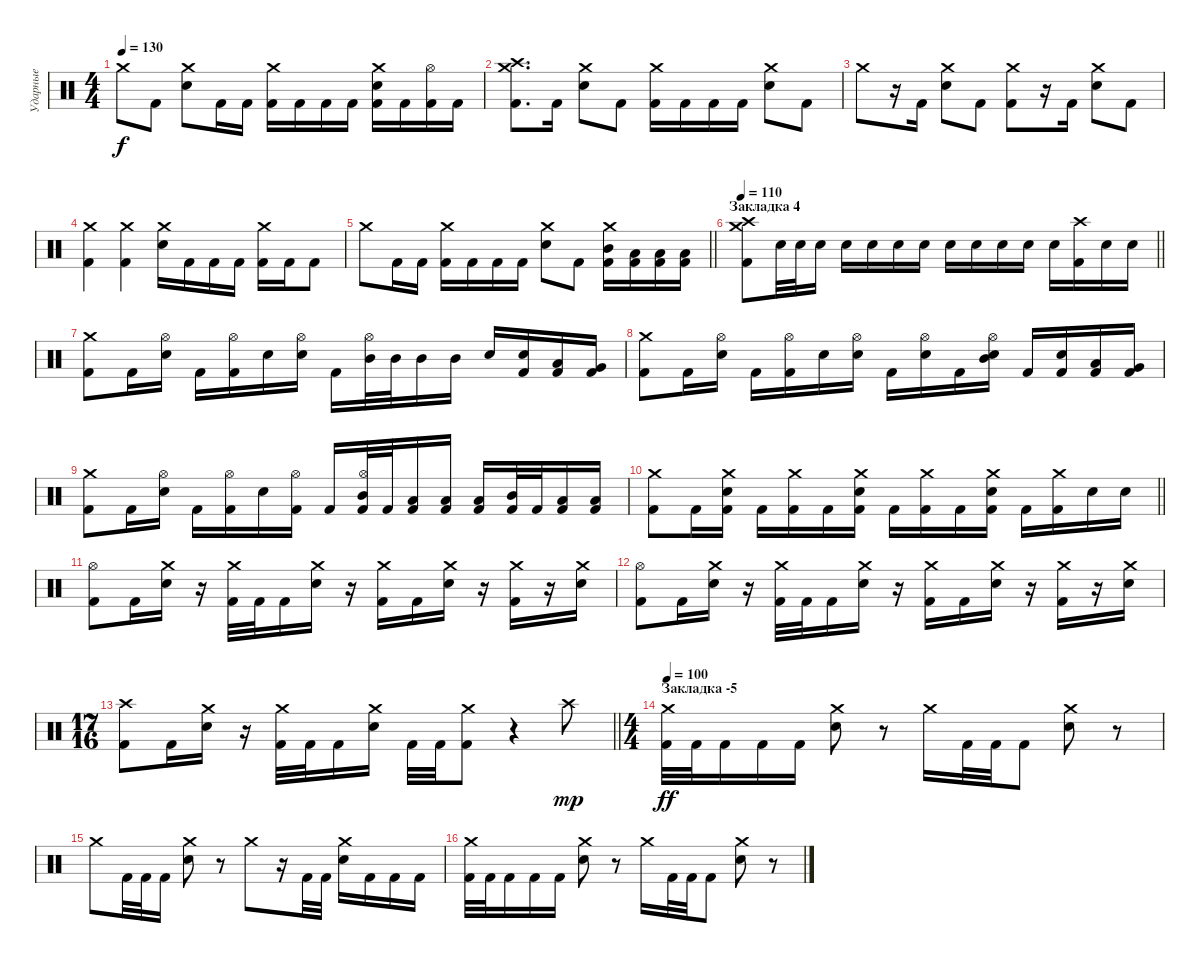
\track ("Ударные" "Ударные") {instrument percussion}
\staff {score}
\articulation defaults
\ts (4 4)
\tempo 130
\clef neutral
\ks c "Crash medium (hit)".8{dy f} "Kick (hit) 2".8
("Crash medium (hit)" "Electric Snare (hit)").8 "Kick (hit) 2".16 "Kick (hit) 2".16 ("Crash medium (hit)" "Kick (hit) 2").16 "Kick (hit) 2".16 "Kick (hit) 2".16 "Kick (hit) 2".16 ("Crash medium (hit)" "Electric Snare (hit)" "Kick (hit) 2").16 "Kick (hit) 2".16 ("Hi-Hat (open)" "Kick (hit) 2").16 "Kick (hit) 2".16 |
("Crash medium (hit)" "Crash high (hit)" "Kick (hit) 2").8{d} "Kick (hit) 2".16 ("Crash medium (hit)" "Electric Snare (hit)").8 "Kick (hit) 2".8 ("Crash medium (hit)" "Kick (hit) 2").16 "Kick (hit) 2".16 "Kick (hit) 2".16 "Kick (hit) 2".16 ("Crash medium (hit)" "Electric Snare (hit)").8 "Kick (hit) 2".8 |
"Crash medium (hit)".8 r.16 "Kick (hit) 2".16 ("Crash medium (hit)" "Electric Snare (hit)").8 "Kick (hit) 2".8 ("Crash medium (hit)" "Kick (hit) 2").8 r.16 "Kick (hit) 2".16 ("Crash medium (hit)" "Electric Snare (hit)").8 "Kick (hit) 2".8 |
("Crash medium (hit)" "Kick (hit) 2").4 ("Crash medium (hit)" "Kick (hit) 2").4 ("Crash medium (hit)" "Electric Snare (hit)").16 "Kick (hit) 2".16 "Kick (hit) 2".16 "Kick (hit) 2".16 ("Crash medium (hit)" "Kick (hit) 2").16 "Kick (hit) 2".16 "Kick (hit) 2".8 |
\barLineRight lightlight "Crash medium (hit)".8 "Kick (hit) 2".16 "Kick (hit) 2".16
("Crash medium (hit)" "Kick (hit) 2").16 "Kick (hit) 2".16 "Kick (hit) 2".16 "Kick (hit) 2".16 ("Crash medium (hit)" "Electric Snare (hit)").8 "Kick (hit) 2".8 ("Crash medium (hit)" "Mid Tom (hit)" "Kick (hit) 2").16 ("Low Floor Tom (hit)" "Kick (hit) 2").16 ("Low Tom (hit)" "Kick (hit) 2").16 ("Low Floor Tom (hit)" "Kick (hit) 2").16 |
\section ("" "Закладка 4")
\tempo 110
\barLineRight lightlight
("Crash high (hit)" "Crash medium (hit)" "Kick (hit) 2").8 "Electric Snare (hit)".32 "Electric Snare (hit)".32 "Electric Snare (hit)".16 "Electric Snare (hit)".16 "Electric Snare (hit)".16 "Electric Snare (hit)".16 "Electric Snare (hit)".16 "Electric Snare (hit)".16 "Electric Snare (hit)".16 "Electric Snare (hit)".16 "Electric Snare (hit)".16 "Electric Snare (hit)".16 ("Crash high (hit)" "Kick (hit) 2").16 "Electric Snare (hit)".16 "Electric Snare (hit)".16 |
("Crash medium (hit)" "Kick (hit) 2").8 "Kick (hit) 2".16 ("Hi-Hat (open)" "Electric Snare (hit)").16 "Kick (hit) 2".16 ("Hi-Hat (open)" "Kick (hit) 2").16 "Electric Snare (hit)".16 ("Hi-Hat (open)" "Electric Snare (hit)").16 "Kick (hit) 2".16 ("Hi-Hat (open)" "Mid Tom (hit)").32 "Mid Tom (hit)".32 "Mid Tom (hit)".16 "Mid Tom (hit)".16 "Electric Snare (hit)".16 ("Electric Snare (hit)" "Kick (hit) 2").16 ("Low Tom (hit)" "Kick (hit) 2").16 ("Very Low Tom (hit)" "Kick (hit) 2").16 |
("Crash medium (hit)" "Kick (hit) 2").8 "Kick (hit) 2".16 ("Hi-Hat (open)" "Electric Snare (hit)").16 "Kick (hit) 2".16 ("Hi-Hat (open)" "Kick (hit) 2").16 "Electric Snare (hit)".16 ("Hi-Hat (open)" "Electric Snare (hit)").16 "Kick (hit) 2".16 ("Hi-Hat (open)" "Electric Snare (hit)").16 "Kick (hit) 2".16 ("Hi-Hat (open)" "Mid Tom (hit)" "Electric Snare (hit)").16 "Kick (hit) 2".16 ("Electric Snare (hit)" "Kick (hit) 2").16 ("Low Tom (hit)" "Kick (hit) 2").16 ("Very Low Tom (hit)" "Kick (hit) 2").16 |
("Crash medium (hit)" "Kick (hit) 2").8 "Kick (hit) 2".16 ("Hi-Hat (open)" "Electric Snare (hit)").16 "Kick (hit) 2".16 ("Hi-Hat (open)" "Kick (hit) 2").16 "Electric Snare (hit)".16 ("Hi-Hat (open)" "Kick (hit) 2").16 "Kick (hit) 2".16 ("Hi-Hat (open)" "Mid Tom (hit)" "Kick (hit) 2").32 "Kick (hit) 2".32 ("Low Tom (hit)" "Kick (hit) 2").16 ("Low Floor Tom (hit)" "Kick (hit) 2").16 ("Low Floor Tom (hit)" "Kick (hit) 2").16 ("Mid Tom (hit)" "Kick (hit) 2").32 "Kick (hit) 2".32 ("Low Tom (hit)" "Kick (hit) 2").16 ("Low Floor Tom (hit)" "Kick (hit) 2").16 |
\barLineRight lightlight
("Crash medium (hit)" "Kick (hit) 2").8 "Kick (hit) 2".16 ("Crash medium (hit)" "Electric Snare (hit)" "Kick (hit) 2").16 "Kick (hit) 2".16 ("Crash medium (hit)" "Kick (hit) 2").16 "Kick (hit) 2".16 ("Crash medium (hit)" "Electric Snare (hit)" "Kick (hit) 2").16 "Kick (hit) 2".16 ("Crash medium (hit)" "Kick (hit) 2").16 "Kick (hit) 2".16 ("Crash medium (hit)" "Electric Snare (hit)" "Kick (hit) 2").16 "Kick (hit) 2".16 ("Crash medium (hit)" "Kick (hit) 2").16 "Electric Snare (hit)".16 "Electric Snare (hit)".16 |
("Hi-Hat (open)" "Kick (hit) 2").8 "Kick (hit) 2".16 ("Crash medium (hit)" "Electric Snare (hit)").16 r.16 ("Crash medium (hit)" "Kick (hit) 2").32 "Kick (hit) 2".32 "Kick (hit) 2".16 ("Crash medium (hit)" "Electric Snare (hit)").16 r.16 ("Crash medium (hit)" "Kick (hit) 2").16 "Kick (hit) 2".16 ("Crash medium (hit)" "Electric Snare (hit)").16 r.16 ("Crash medium (hit)" "Kick (hit) 2").16 r.16 ("Crash medium (hit)" "Electric Snare (hit)").16 |
("Hi-Hat (open)" "Kick (hit) 2").8 "Kick (hit) 2".16 ("Crash medium (hit)" "Electric Snare (hit)").16 r.16 ("Crash medium (hit)" "Kick (hit) 2").32 "Kick (hit) 2".32 "Kick (hit) 2".16 ("Crash medium (hit)" "Electric Snare (hit)").16 r.16 ("Crash medium (hit)" "Kick (hit) 2").16 "Kick (hit) 2".16 ("Crash medium (hit)" "Electric Snare (hit)").16 r.16 ("Crash medium (hit)" "Kick (hit) 2").16 r.16 ("Crash medium (hit)" "Electric Snare (hit)").16 |
\ts (17 16)
\barLineRight lightlight
("Crash high (hit)" "Kick (hit) 2").8 "Kick (hit) 2".16 ("Crash medium (hit)" "Electric Snare (hit)").16 r.16 ("Crash medium (hit)" "Kick (hit) 2").32 "Kick (hit) 2".32 "Kick (hit) 2".16 ("Crash medium (hit)" "Electric Snare (hit)").16 "Kick (hit) 2".32 "Kick (hit) 2".32 ("Crash medium (hit)" "Kick (hit) 2").8 r.4 "Crash high (hit)".8{dy mp} |
\ts (4 4)
\section ("" "Закладка -5")
\tempo 100
("Crash medium (hit)" "Kick (hit) 2").32{dy ff} "Kick (hit) 2".32 "Kick (hit) 2".16 "Kick (hit) 2".16 "Kick (hit) 2".16 ("Crash medium (hit)" "Electric Snare (hit)").8 r.8 "Crash medium (hit)".16 "Kick (hit) 2".32 "Kick (hit) 2".32 "Kick (hit) 2".8 ("Crash medium (hit)" "Electric Snare (hit)").8 r.8 |
"Crash medium (hit)".8 "Kick (hit) 2".32 "Kick (hit) 2".32 "Kick (hit) 2".16 ("Crash medium (hit)" "Electric Snare (hit)").8 r.8 "Crash medium (hit)".8 r.16 "Kick (hit) 2".32 "Kick (hit) 2".32 ("Crash medium (hit)" "Electric Snare (hit)").16 "Kick (hit) 2".16 "Kick (hit) 2".16 "Kick (hit) 2".16 |
("Crash medium (hit)" "Kick (hit) 2").32 "Kick (hit) 2".32 "Kick (hit) 2".16 "Kick (hit) 2".16 "Kick (hit) 2".16 ("Crash medium (hit)" "Electric Snare (hit)").8 r.8 "Crash medium (hit)".16 "Kick (hit) 2".32 "Kick (hit) 2".32 "Kick (hit) 2".8 ("Crash medium (hit)" "Electric Snare (hit)").8 r.8
